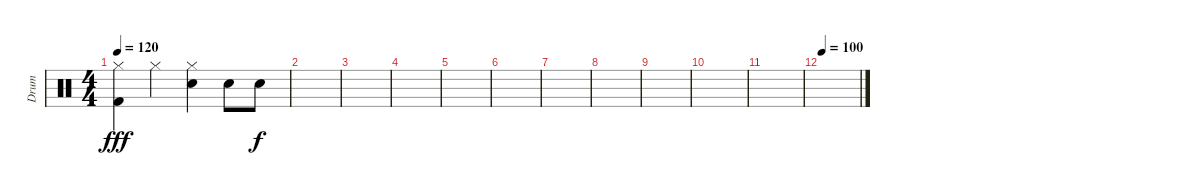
\track ("Drum" "Drum") {instrument percussion}
\staff {score}
\articulation defaults
\ts (4 4)
\tempo 120
\clef neutral
\ks c
("Hi-Hat (closed)" "Kick (hit) 2").4{dy fff} "Hi-Hat (closed)".4 ("Hi-Hat (closed)" "Electric Snare (hit)").4 "Electric Snare (hit)".8 "Electric Snare (hit)".8{dy f} |
|
|
|
|
|
|
|
|
|
|
\tempo 100
